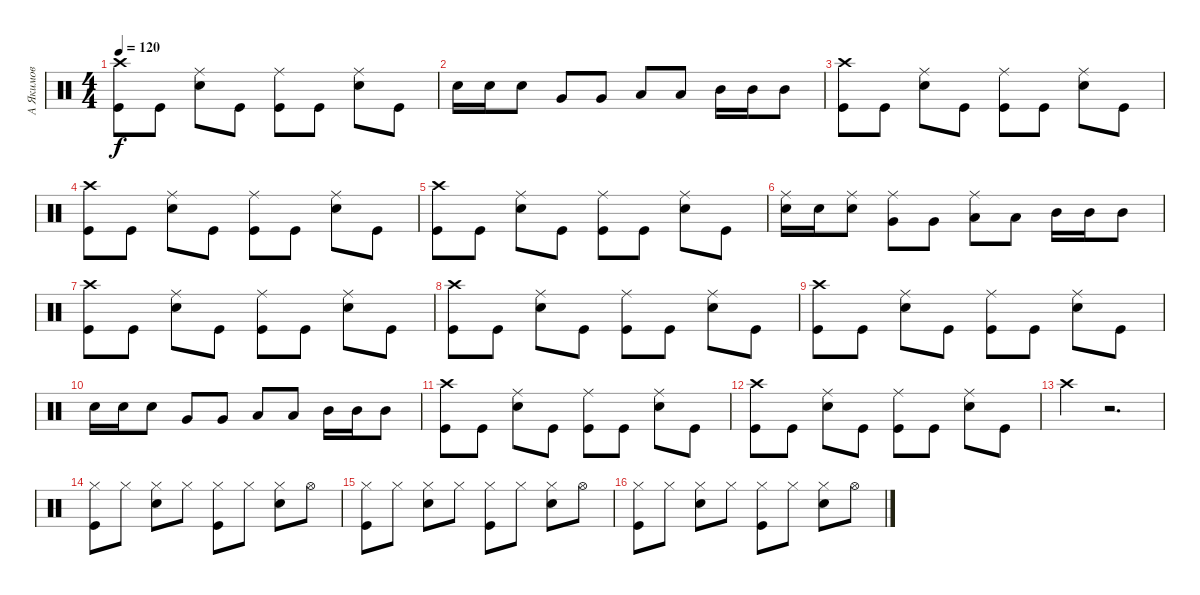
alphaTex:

\track ("А Якимов" "А Якимов") {instrument percussion}
\staff {score}
\articulation defaults
\ts (4 4)
\tempo 120
\clef neutral
\ks c
("Crash high (hit)" "Kick (hit)").8{dy f} "Kick (hit)".8 ("Ride (middle)" "Snare (hit) 2").8 "Kick (hit)".8 ("Ride (middle)" "Kick (hit)").8 "Kick (hit)".8 ("Ride (middle)" "Snare (hit) 2").8 "Kick (hit)".8 |
"Snare (hit) 2".16 "Snare (hit) 2".16 "Snare (hit) 2".8 "Very Low Tom (hit)".8 "Very Low Tom (hit)".8 "Low Tom (hit)".8 "Low Tom (hit)".8 "Mid Tom (hit)".16 "Mid Tom (hit)".16 "Mid Tom (hit)".8 |
("Crash high (hit)" "Kick (hit)").8 "Kick (hit)".8 ("Ride (middle)" "Snare (hit) 2").8 "Kick (hit)".8 ("Ride (middle)" "Kick (hit)").8 "Kick (hit)".8 ("Ride (middle)" "Snare (hit) 2").8 "Kick (hit)".8 |
("Crash high (hit)" "Kick (hit)").8 "Kick (hit)".8 ("Ride (middle)" "Snare (hit) 2").8 "Kick (hit)".8 ("Ride (middle)" "Kick (hit)").8 "Kick (hit)".8 ("Ride (middle)" "Snare (hit) 2").8 "Kick (hit)".8 |
("Crash high (hit)" "Kick (hit)").8 "Kick (hit)".8 ("Ride (middle)" "Snare (hit) 2").8 "Kick (hit)".8 ("Ride (middle)" "Kick (hit)").8 "Kick (hit)".8 ("Ride (middle)" "Snare (hit) 2").8 "Kick (hit)".8 |
("Snare (hit) 2" "Ride (middle)").16 "Snare (hit) 2".16 ("Snare (hit) 2" "Ride (middle)").8 ("Very Low Tom (hit)" "Ride (middle)").8 "Very Low Tom (hit)".8 ("Low Tom (hit)" "Ride (middle)").8 "Low Tom (hit)".8 "Mid Tom (hit)".16 "Mid Tom (hit)".16 "Mid Tom (hit)".8 |
("Crash high (hit)" "Kick (hit)").8 "Kick (hit)".8 ("Ride (middle)" "Snare (hit) 2").8 "Kick (hit)".8 ("Ride (middle)" "Kick (hit)").8 "Kick (hit)".8 ("Ride (middle)" "Snare (hit) 2").8 "Kick (hit)".8 |
("Crash high (hit)" "Kick (hit)").8 "Kick (hit)".8 ("Ride (middle)" "Snare (hit) 2").8 "Kick (hit)".8 ("Ride (middle)" "Kick (hit)").8 "Kick (hit)".8 ("Ride (middle)" "Snare (hit) 2").8 "Kick (hit)".8 |
("Crash high (hit)" "Kick (hit)").8 "Kick (hit)".8 ("Ride (middle)" "Snare (hit) 2").8 "Kick (hit)".8 ("Ride (middle)" "Kick (hit)").8 "Kick (hit)".8 ("Ride (middle)" "Snare (hit) 2").8 "Kick (hit)".8 |
"Snare (hit) 2".16 "Snare (hit) 2".16 "Snare (hit) 2".8 "Very Low Tom (hit)".8 "Very Low Tom (hit)".8 "Low Tom (hit)".8 "Low Tom (hit)".8 "Mid Tom (hit)".16 "Mid Tom (hit)".16 "Mid Tom (hit)".8 |
("Crash high (hit)" "Kick (hit)").8 "Kick (hit)".8 ("Ride (middle)" "Snare (hit) 2").8 "Kick (hit)".8 ("Ride (middle)" "Kick (hit)").8 "Kick (hit)".8 ("Ride (middle)" "Snare (hit) 2").8 "Kick (hit)".8 |
("Crash high (hit)" "Kick (hit)").8 "Kick (hit)".8 ("Ride (middle)" "Snare (hit) 2").8 "Kick (hit)".8 ("Ride (middle)" "Kick (hit)").8 "Kick (hit)".8 ("Ride (middle)" "Snare (hit) 2").8 "Kick (hit)".8 |
"Crash high (hit)".4 r.2{d} |
("Hi-Hat (closed)" "Kick (hit)").8 "Hi-Hat (closed)".8 ("Hi-Hat (closed)" "Snare (hit) 2").8 "Hi-Hat (closed)".8 ("Hi-Hat (closed)" "Kick (hit)").8 "Hi-Hat (closed)".8 ("Snare (hit) 2" "Hi-Hat (closed)").8 "Hi-Hat (open)".8 |
("Hi-Hat (closed)" "Kick (hit)").8 "Hi-Hat (closed)".8 ("Hi-Hat (closed)" "Snare (hit) 2").8 "Hi-Hat (closed)".8 ("Hi-Hat (closed)" "Kick (hit)").8 "Hi-Hat (closed)".8 ("Snare (hit) 2" "Hi-Hat (closed)").8 "Hi-Hat (open)".8 |
("Hi-Hat (closed)" "Kick (hit)").8 "Hi-Hat (closed)".8 ("Hi-Hat (closed)" "Snare (hit) 2").8 "Hi-Hat (closed)".8 ("Hi-Hat (closed)" "Kick (hit)").8 "Hi-Hat (closed)".8 ("Snare (hit) 2" "Hi-Hat (closed)").8 "Hi-Hat (open)".8
